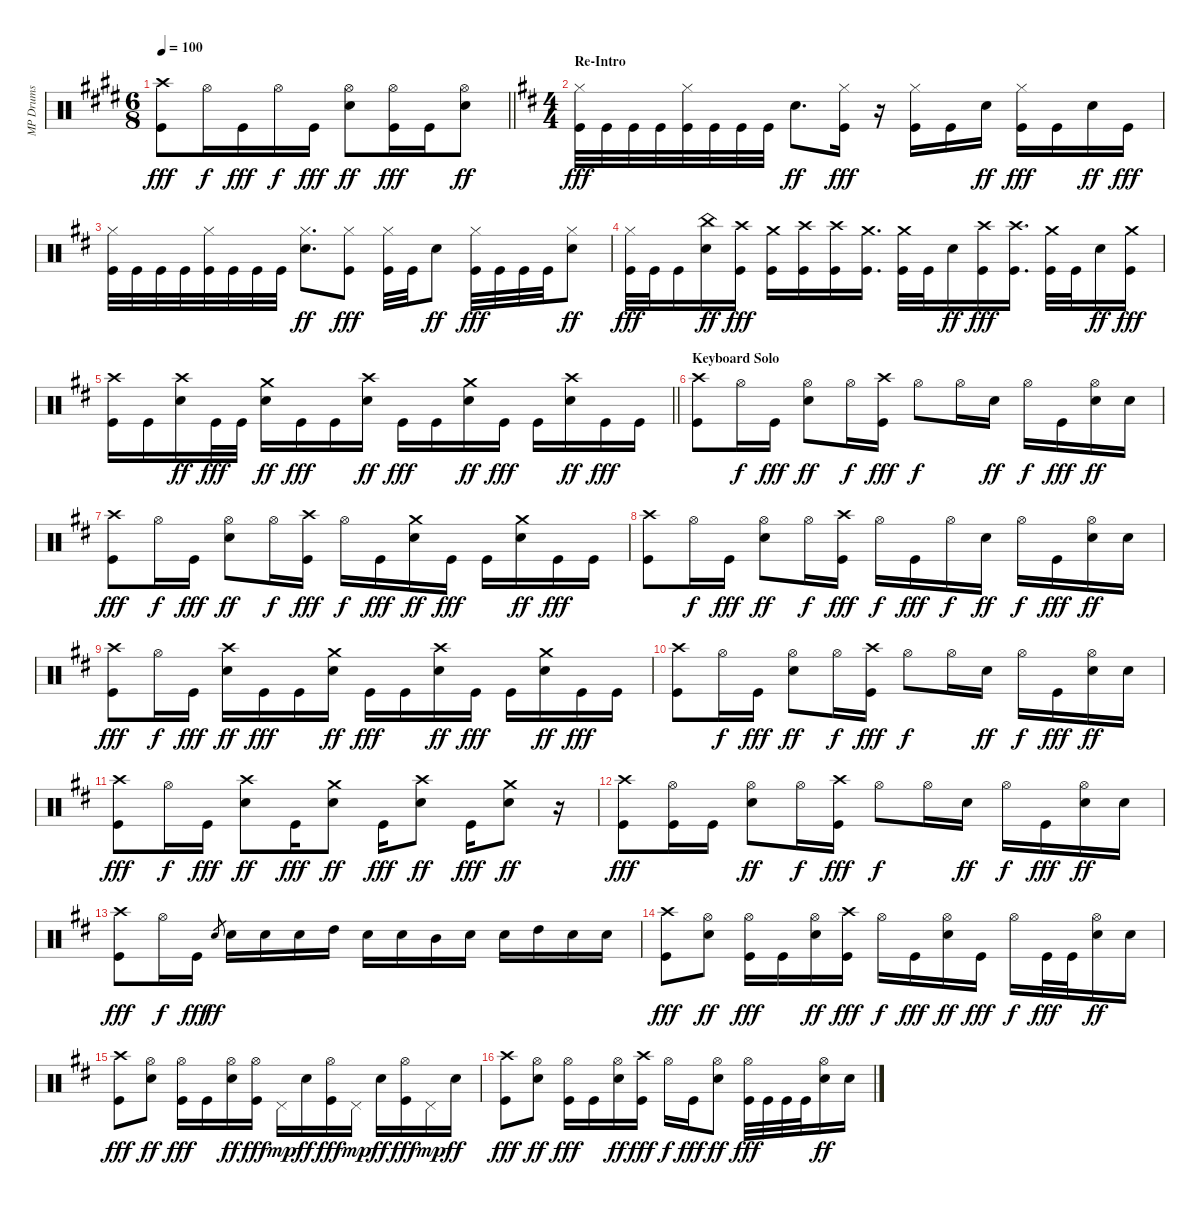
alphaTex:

\track ("MP Drums" "MP Drums") {instrument percussion}
\staff {score}
\articulation defaults
\ts (6 8)
\tempo 100
\clef neutral
\barLineRight lightlight
\ks e
("Crash high (hit)" "Kick (hit)").8{dy fff} "Hi-Hat (open)".16{dy f} "Kick (hit)".16{dy fff} "Hi-Hat (open)".16{dy f} "Kick (hit)".16{dy fff} ("Hi-Hat (open)" "Snare (hit) 2").8{dy ff} ("Hi-Hat (open)" "Kick (hit)").16{dy fff} "Kick (hit)".16 ("Hi-Hat (open)" "Snare (hit) 2").8{dy ff} |
\ts (4 4)
\section ("" "Re-Intro")
\ks d
("Hi-Hat (closed)" "Kick (hit)").32{dy fff} "Kick (hit)".32 "Kick (hit)".32 "Kick (hit)".32 ("Hi-Hat (closed)" "Kick (hit)").32 "Kick (hit)".32 "Kick (hit)".32 "Kick (hit)".32 "Snare (hit) 2".8{d dy ff} ("Hi-Hat (closed)" "Kick (hit)").16{dy fff} r.16 ("Hi-Hat (closed)" "Kick (hit)").16 "Kick (hit)".16 "Snare (hit) 2".16{dy ff} ("Hi-Hat (closed)" "Kick (hit)").16{dy fff} "Kick (hit)".16 "Snare (hit) 2".16{dy ff} "Kick (hit)".16{dy fff} |
("Hi-Hat (closed)" "Kick (hit)").32 "Kick (hit)".32 "Kick (hit)".32 "Kick (hit)".32 ("Hi-Hat (closed)" "Kick (hit)").32 "Kick (hit)".32 "Kick (hit)".32 "Kick (hit)".32 ("Hi-Hat (closed)" "Snare (hit) 2").8{d dy ff} ("Hi-Hat (closed)" "Kick (hit)").8{dy fff} ("Hi-Hat (closed)" "Kick (hit)").32 "Kick (hit)".32 "Snare (hit) 2".8{dy ff} ("Hi-Hat (closed)" "Kick (hit)").32{dy fff} "Kick (hit)".32 "Kick (hit)".32 "Kick (hit)".32 ("Hi-Hat (closed)" "Snare (hit) 2").8{dy ff} |
("Hi-Hat (closed)" "Kick (hit)").32{dy fff} "Kick (hit)".32 "Kick (hit)".16 ("China (hit)" "Snare (hit) 2").16{dy ff} ("Crash high (hit)" "Kick (hit)").16{dy fff} ("Crash medium (hit)" "Kick (hit)").16 ("Crash high (hit)" "Kick (hit)").16 ("Crash high (hit)" "Kick (hit)").16 ("Crash medium (hit)" "Kick (hit)").16{d} ("Crash medium (hit)" "Kick (hit)").32 "Kick (hit)".32 "Snare (hit) 2".16{dy ff} ("Crash high (hit)" "Kick (hit)").16{dy fff} ("Crash high (hit)" "Kick (hit)").16{d} ("Crash medium (hit)" "Kick (hit)").32 "Kick (hit)".32 "Snare (hit) 2".16{dy ff} ("Crash medium (hit)" "Kick (hit)").16{dy fff} |
\barLineRight lightlight
("Crash high (hit)" "Kick (hit)").16 "Kick (hit)".16 ("Crash high (hit)" "Snare (hit) 2").16{dy ff} "Kick (hit)".32{dy fff} "Kick (hit)".32 ("Crash medium (hit)" "Snare (hit) 2").16{dy ff} "Kick (hit)".16{dy fff} "Kick (hit)".16 ("Crash high (hit)" "Snare (hit) 2").16{dy ff} "Kick (hit)".16{dy fff} "Kick (hit)".16 ("Crash medium (hit)" "Snare (hit) 2").16{dy ff} "Kick (hit)".16{dy fff} "Kick (hit)".16 ("Crash high (hit)" "Snare (hit) 2").16{dy ff} "Kick (hit)".16{dy fff} "Kick (hit)".16 |
\section ("" "Keyboard Solo")
("Crash high (hit)" "Kick (hit)").8 "Hi-Hat (open)".16{dy f} "Kick (hit)".16{dy fff} ("Hi-Hat (open)" "Snare (hit) 2").8{dy ff} "Hi-Hat (open)".16{dy f} ("Crash high (hit)" "Kick (hit)").16{dy fff} "Hi-Hat (open)".8{dy f} "Hi-Hat (open)".16 "Snare (hit) 2".16{dy ff} "Hi-Hat (open)".16{dy f} "Kick (hit)".16{dy fff} ("Hi-Hat (open)" "Snare (hit) 2").16{dy ff} "Snare (hit) 2".16 |
("Crash high (hit)" "Kick (hit)").8{dy fff} "Hi-Hat (open)".16{dy f} "Kick (hit)".16{dy fff} ("Hi-Hat (open)" "Snare (hit) 2").8{dy ff} "Hi-Hat (open)".16{dy f} ("Crash high (hit)" "Kick (hit)").16{dy fff} "Hi-Hat (open)".16{dy f} "Kick (hit)".16{dy fff} ("Crash medium (hit)" "Snare (hit) 2").16{dy ff} "Kick (hit)".16{dy fff} "Kick (hit)".16 ("Crash medium (hit)" "Snare (hit) 2").16{dy ff} "Kick (hit)".16{dy fff} "Kick (hit)".16 |
("Crash high (hit)" "Kick (hit)").8 "Hi-Hat (open)".16{dy f} "Kick (hit)".16{dy fff} ("Hi-Hat (open)" "Snare (hit) 2").8{dy ff} "Hi-Hat (open)".16{dy f} ("Crash high (hit)" "Kick (hit)").16{dy fff} "Hi-Hat (open)".16{dy f} "Kick (hit)".16{dy fff} "Hi-Hat (open)".16{dy f} "Snare (hit) 2".16{dy ff} "Hi-Hat (open)".16{dy f} "Kick (hit)".16{dy fff} ("Hi-Hat (open)" "Snare (hit) 2").16{dy ff} "Snare (hit) 2".16 |
("Crash high (hit)" "Kick (hit)").8{dy fff} "Hi-Hat (open)".16{dy f} "Kick (hit)".16{dy fff} ("Crash high (hit)" "Snare (hit) 2").16{dy ff} "Kick (hit)".16{dy fff} "Kick (hit)".16 ("Crash medium (hit)" "Snare (hit) 2").16{dy ff} "Kick (hit)".16{dy fff} "Kick (hit)".16 ("Crash high (hit)" "Snare (hit) 2").16{dy ff} "Kick (hit)".16{dy fff} "Kick (hit)".16 ("Crash medium (hit)" "Snare (hit) 2").16{dy ff} "Kick (hit)".16{dy fff} "Kick (hit)".16 |
("Crash high (hit)" "Kick (hit)").8 "Hi-Hat (open)".16{dy f} "Kick (hit)".16{dy fff} ("Hi-Hat (open)" "Snare (hit) 2").8{dy ff} "Hi-Hat (open)".16{dy f} ("Crash high (hit)" "Kick (hit)").16{dy fff} "Hi-Hat (open)".8{dy f} "Hi-Hat (open)".16 "Snare (hit) 2".16{dy ff} "Hi-Hat (open)".16{dy f} "Kick (hit)".16{dy fff} ("Hi-Hat (open)" "Snare (hit) 2").16{dy ff} "Snare (hit) 2".16 |
("Crash high (hit)" "Kick (hit)").8{dy fff} "Hi-Hat (open)".16{dy f} "Kick (hit)".16{dy fff} ("Crash high (hit)" "Snare (hit) 2").8{dy ff} "Kick (hit)".16{dy fff} ("Crash medium (hit)" "Snare (hit) 2").8{dy ff} "Kick (hit)".16{dy fff} ("Crash high (hit)" "Snare (hit) 2").8{dy ff} "Kick (hit)".16{dy fff} ("Crash medium (hit)" "Snare (hit) 2").8{dy ff} r.16 |
("Crash high (hit)" "Kick (hit)").8{dy fff} ("Hi-Hat (open)" "Kick (hit)").16 "Kick (hit)".16 ("Hi-Hat (open)" "Snare (hit) 2").8{dy ff} "Hi-Hat (open)".16{dy f} ("Crash high (hit)" "Kick (hit)").16{dy fff} "Hi-Hat (open)".8{dy f} "Hi-Hat (open)".16 "Snare (hit) 2".16{dy ff} "Hi-Hat (open)".16{dy f} "Kick (hit)".16{dy fff} ("Hi-Hat (open)" "Snare (hit) 2").16{dy ff} "Snare (hit) 2".16 |
("Crash high (hit)" "Kick (hit)").8{dy fff} "Hi-Hat (open)".16{dy f} "Kick (hit)".16{dy fff} "Snare (hit) 2".8{gr dy ff} "Snare (hit) 2".16 "Snare (hit) 2".16 "Snare (hit) 2".16 "High Tom (hit)".16 "Snare (hit) 2".16 "Snare (hit) 2".16 "Mid Tom (hit)".16 "Snare (hit) 2".16 "Snare (hit) 2".16 "High Tom (hit)".16 "Snare (hit) 2".16 "Snare (hit) 2".16 |
("Crash high (hit)" "Kick (hit)").8{dy fff} ("Hi-Hat (open)" "Snare (hit) 2").8{dy ff} ("Hi-Hat (open)" "Kick (hit)").16{dy fff} "Kick (hit)".16 ("Hi-Hat (open)" "Snare (hit) 2").16{dy ff} ("Crash high (hit)" "Kick (hit)").16{dy fff} "Hi-Hat (open)".16{dy f} "Kick (hit)".16{dy fff} ("Hi-Hat (open)" "Snare (hit) 2").16{dy ff} "Kick (hit)".16{dy fff} "Hi-Hat (open)".16{dy f} "Kick (hit)".32{dy fff} "Kick (hit)".32 ("Hi-Hat (open)" "Snare (hit) 2").16{dy ff} "Snare (hit) 2".16 |
("Crash high (hit)" "Kick (hit)").8{dy fff} ("Hi-Hat (open)" "Snare (hit) 2").8{dy ff} ("Hi-Hat (open)" "Kick (hit)").16{dy fff} "Kick (hit)".16 ("Hi-Hat (open)" "Snare (hit) 2").16{dy ff} ("Hi-Hat (open)" "Kick (hit)").16{dy fff} "Pedal Hi-Hat (hit)".16{dy mp} "Snare (hit) 2".16{dy ff} ("Hi-Hat (open)" "Kick (hit)").16{dy fff} "Pedal Hi-Hat (hit)".16{dy mp} "Snare (hit) 2".16{dy ff} ("Hi-Hat (open)" "Kick (hit)").16{dy fff} "Pedal Hi-Hat (hit)".16{dy mp} "Snare (hit) 2".16{dy ff} |
("Crash high (hit)" "Kick (hit)").8{dy fff} ("Hi-Hat (open)" "Snare (hit) 2").8{dy ff} ("Hi-Hat (open)" "Kick (hit)").16{dy fff} "Kick (hit)".16 ("Hi-Hat (open)" "Snare (hit) 2").16{dy ff} ("Crash high (hit)" "Kick (hit)").16{dy fff} "Hi-Hat (open)".16{dy f} "Kick (hit)".16{dy fff} ("Hi-Hat (open)" "Snare (hit) 2").8{dy ff} ("Hi-Hat (open)" "Kick (hit)").32{dy fff} "Kick (hit)".32 "Kick (hit)".32 "Kick (hit)".32 ("Hi-Hat (open)" "Snare (hit) 2").16{dy ff} "Snare (hit) 2".16
